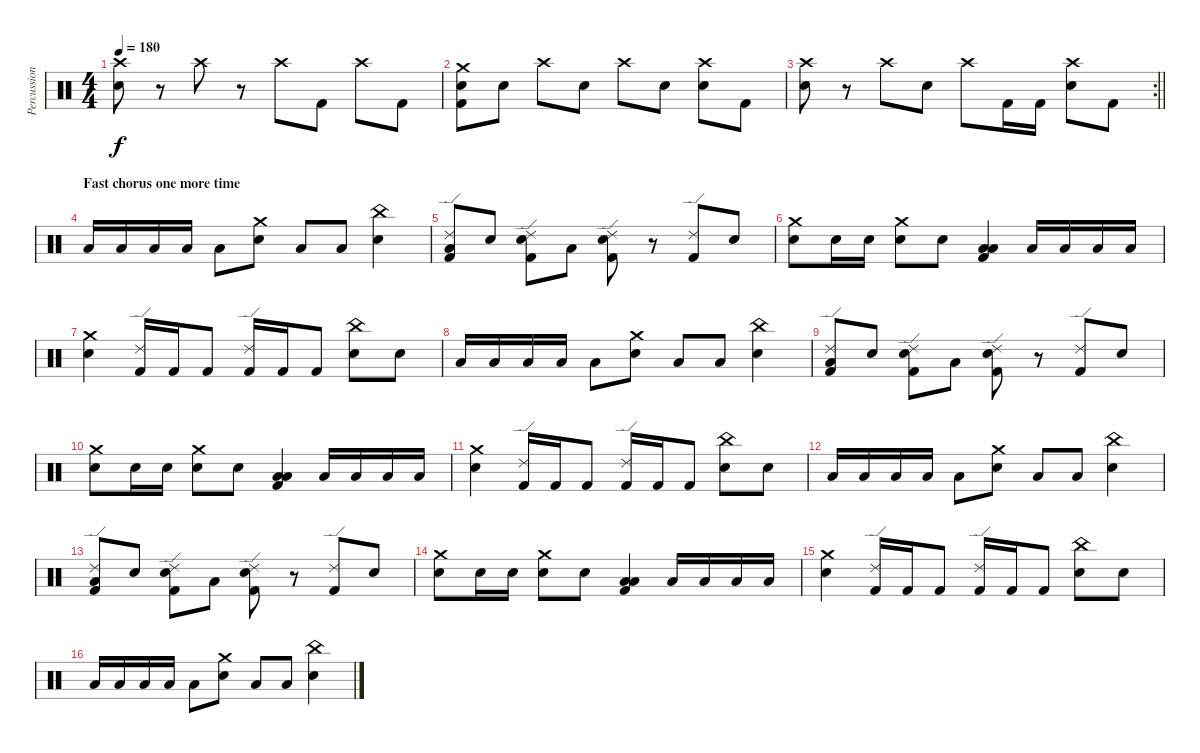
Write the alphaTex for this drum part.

\track ("Percussion" "Percussion") {instrument percussion}
\staff {score}
\articulation defaults
\ts (4 4)
\tempo 180
\clef neutral
\ks c
("Crash high (hit)" "Electric Snare (hit)").8{dy f} r.8 "Crash high (hit)".8 r.8 "Crash high (hit)".8 "Kick (hit) 2".8 "Crash high (hit)".8 "Kick (hit) 2".8 |
("Snare (hit) 2" "Crash medium (hit)" "Kick (hit) 2").8 "Snare (hit) 2".8 "Crash high (hit)".8 "Snare (hit) 2".8 "Crash high (hit)".8 "Snare (hit) 2".8 ("Crash high (hit)" "Snare (hit) 2").8 "Kick (hit) 2".8 |
\rc 2
\barLineRight lightlight
("Crash high (hit)" "Electric Snare (hit)").8 r.8 "Crash high (hit)".8 "Electric Snare (hit)".8 "Crash high (hit)".8 "Kick (hit) 2".16 "Kick (hit) 2".16 ("Crash high (hit)" "Electric Snare (hit)").8 "Kick (hit) 2".8 |
\section ("" "Fast chorus one more time")
"Low Tom (hit)".16 "Low Tom (hit)".16 "Low Floor Tom (hit)".16 "Low Floor Tom (hit)".16 "Low Floor Tom (hit)".8 ("Crash medium (hit)" "Electric Snare (hit)").8 "Low Tom (hit)".8 "Low Tom (hit)".8 ("China (hit)" "Electric Snare (hit)").4 |
("Ride (edge) 2" "Low Floor Tom (hit)" "Kick (hit) 2").8 "Electric Snare (hit)".8 ("Ride (edge) 2" "Electric Snare (hit)" "Kick (hit) 2").8 "Low Floor Tom (hit)".8 ("Ride (edge) 2" "Electric Snare (hit)" "Kick (hit) 2").8 r.8 ("Ride (edge) 2" "Kick (hit) 2").8 "Electric Snare (hit)".8 |
("Crash medium (hit)" "Electric Snare (hit)").8 "Electric Snare (hit)".16 "Electric Snare (hit)".16 ("Crash medium (hit)" "Electric Snare (hit)").8 "Electric Snare (hit)".8 ("Low Tom (hit)" "Low Floor Tom (hit)" "Kick (hit) 2").4 "Low Tom (hit)".16 "Low Tom (hit)".16 "Low Floor Tom (hit)".16 "Low Floor Tom (hit)".16 |
("Crash medium (hit)" "Electric Snare (hit)").4 ("Ride (edge) 2" "Kick (hit) 2").16 "Kick (hit) 2".16 "Kick (hit) 2".8 ("Ride (edge) 2" "Kick (hit) 2").16 "Kick (hit) 2".16 "Kick (hit) 2".8 ("China (hit)" "Electric Snare (hit)").8 "Electric Snare (hit)".8 |
"Low Tom (hit)".16 "Low Tom (hit)".16 "Low Floor Tom (hit)".16 "Low Floor Tom (hit)".16 "Low Floor Tom (hit)".8 ("Crash medium (hit)" "Electric Snare (hit)").8 "Low Tom (hit)".8 "Low Tom (hit)".8 ("China (hit)" "Electric Snare (hit)").4 |
("Ride (edge) 2" "Low Floor Tom (hit)" "Kick (hit) 2").8 "Electric Snare (hit)".8 ("Ride (edge) 2" "Electric Snare (hit)" "Kick (hit) 2").8 "Low Floor Tom (hit)".8 ("Ride (edge) 2" "Electric Snare (hit)" "Kick (hit) 2").8 r.8 ("Ride (edge) 2" "Kick (hit) 2").8 "Electric Snare (hit)".8 |
("Crash medium (hit)" "Electric Snare (hit)").8 "Electric Snare (hit)".16 "Electric Snare (hit)".16 ("Crash medium (hit)" "Electric Snare (hit)").8 "Electric Snare (hit)".8 ("Low Tom (hit)" "Low Floor Tom (hit)" "Kick (hit) 2").4 "Low Tom (hit)".16 "Low Tom (hit)".16 "Low Floor Tom (hit)".16 "Low Floor Tom (hit)".16 |
("Crash medium (hit)" "Electric Snare (hit)").4 ("Ride (edge) 2" "Kick (hit) 2").16 "Kick (hit) 2".16 "Kick (hit) 2".8 ("Ride (edge) 2" "Kick (hit) 2").16 "Kick (hit) 2".16 "Kick (hit) 2".8 ("China (hit)" "Electric Snare (hit)").8 "Electric Snare (hit)".8 |
"Low Tom (hit)".16 "Low Tom (hit)".16 "Low Floor Tom (hit)".16 "Low Floor Tom (hit)".16 "Low Floor Tom (hit)".8 ("Crash medium (hit)" "Electric Snare (hit)").8 "Low Tom (hit)".8 "Low Tom (hit)".8 ("China (hit)" "Electric Snare (hit)").4 |
("Ride (edge) 2" "Low Floor Tom (hit)" "Kick (hit) 2").8 "Electric Snare (hit)".8 ("Ride (edge) 2" "Electric Snare (hit)" "Kick (hit) 2").8 "Low Floor Tom (hit)".8 ("Ride (edge) 2" "Electric Snare (hit)" "Kick (hit) 2").8 r.8 ("Ride (edge) 2" "Kick (hit) 2").8 "Electric Snare (hit)".8 |
("Crash medium (hit)" "Electric Snare (hit)").8 "Electric Snare (hit)".16 "Electric Snare (hit)".16 ("Crash medium (hit)" "Electric Snare (hit)").8 "Electric Snare (hit)".8 ("Low Tom (hit)" "Low Floor Tom (hit)" "Kick (hit) 2").4 "Low Tom (hit)".16 "Low Tom (hit)".16 "Low Floor Tom (hit)".16 "Low Floor Tom (hit)".16 |
("Crash medium (hit)" "Electric Snare (hit)").4 ("Ride (edge) 2" "Kick (hit) 2").16 "Kick (hit) 2".16 "Kick (hit) 2".8 ("Ride (edge) 2" "Kick (hit) 2").16 "Kick (hit) 2".16 "Kick (hit) 2".8 ("China (hit)" "Electric Snare (hit)").8 "Electric Snare (hit)".8 |
"Low Tom (hit)".16 "Low Tom (hit)".16 "Low Floor Tom (hit)".16 "Low Floor Tom (hit)".16 "Low Floor Tom (hit)".8 ("Crash medium (hit)" "Electric Snare (hit)").8 "Low Tom (hit)".8 "Low Tom (hit)".8 ("China (hit)" "Electric Snare (hit)").4
